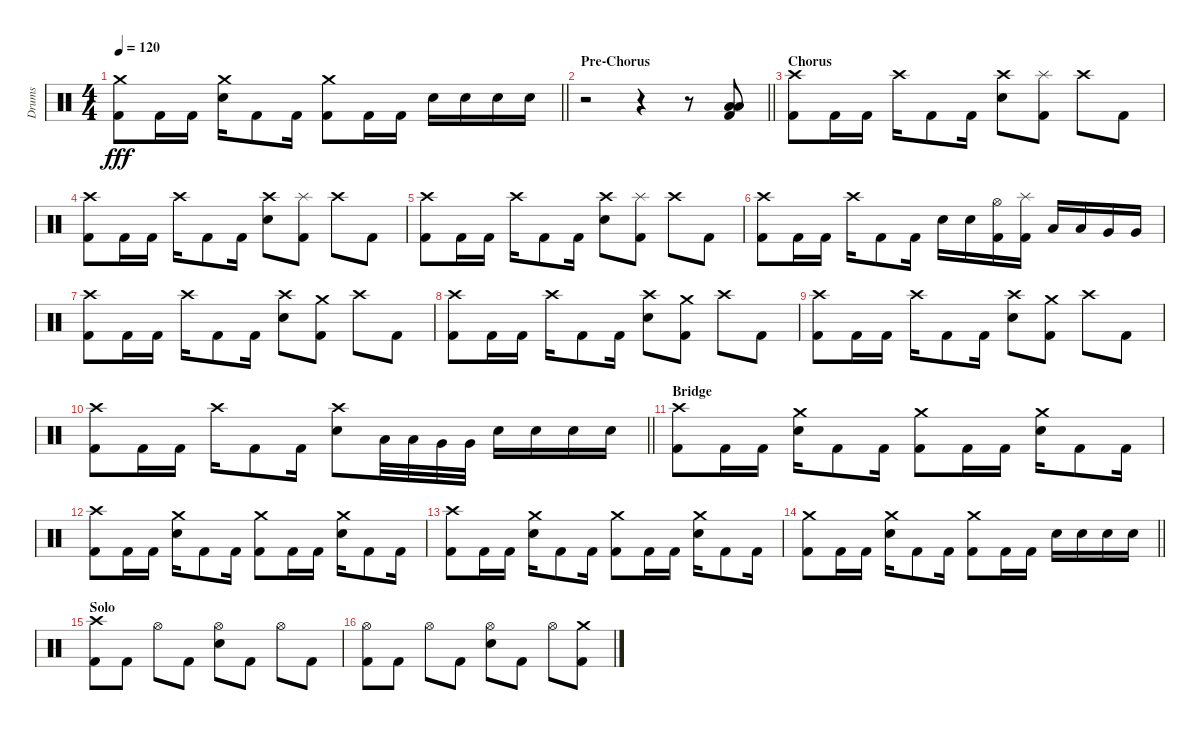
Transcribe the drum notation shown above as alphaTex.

\track ("Drums" "Drums") {instrument percussion}
\staff {score}
\articulation defaults
\ts (4 4)
\tempo 120
\clef neutral
\barLineRight lightlight
\ks c
("Crash medium (hit)" "Kick (hit) 2").8{dy fff} "Kick (hit) 2".16 "Kick (hit) 2".16 ("Crash medium (hit)" "Electric Snare (hit)").16 "Kick (hit) 2".8 "Kick (hit) 2".16 ("Crash medium (hit)" "Kick (hit) 2").8 "Kick (hit) 2".16 "Kick (hit) 2".16 "Electric Snare (hit)".16 "Electric Snare (hit)".16 "Electric Snare (hit)".16 "Electric Snare (hit)".16 |
\section ("" "Pre-Chorus")
\barLineRight lightlight
r.2 r.4 r.8 ("Low Floor Tom (hit)" "Low Tom (hit)" "Kick (hit) 2").8 |
\section ("" "Chorus")
("Crash high (hit)" "Kick (hit) 2").8 "Kick (hit) 2".16 "Kick (hit) 2".16 "Crash high (hit)".16 "Kick (hit) 2".8 "Kick (hit) 2".16 ("Crash high (hit)" "Electric Snare (hit)").8 ("Splash (hit)" "Kick (hit) 2").8 "Crash high (hit)".8 "Kick (hit) 2".8 |
("Crash high (hit)" "Kick (hit) 2").8 "Kick (hit) 2".16 "Kick (hit) 2".16 "Crash high (hit)".16 "Kick (hit) 2".8 "Kick (hit) 2".16 ("Crash high (hit)" "Electric Snare (hit)").8 ("Splash (hit)" "Kick (hit) 2").8 "Crash high (hit)".8 "Kick (hit) 2".8 |
("Crash high (hit)" "Kick (hit) 2").8 "Kick (hit) 2".16 "Kick (hit) 2".16 "Crash high (hit)".16 "Kick (hit) 2".8 "Kick (hit) 2".16 ("Crash high (hit)" "Electric Snare (hit)").8 ("Splash (hit)" "Kick (hit) 2").8 "Crash high (hit)".8 "Kick (hit) 2".8 |
("Crash high (hit)" "Kick (hit) 2").8 "Kick (hit) 2".16 "Kick (hit) 2".16 "Crash high (hit)".16 "Kick (hit) 2".8 "Kick (hit) 2".16 "Electric Snare (hit)".16 "Electric Snare (hit)".16 ("Hi-Hat (open)" "Kick (hit) 2").16 ("Splash (hit)" "Kick (hit) 2").16 "Low Tom (hit)".16 "Low Tom (hit)".16 "Very Low Tom (hit)".16 "Very Low Tom (hit)".16 |
("Crash high (hit)" "Kick (hit) 2").8 "Kick (hit) 2".16 "Kick (hit) 2".16 "Crash high (hit)".16 "Kick (hit) 2".8 "Kick (hit) 2".16 ("Crash high (hit)" "Electric Snare (hit)").8 ("Crash medium (hit)" "Kick (hit) 2").8 "Crash high (hit)".8 "Kick (hit) 2".8 |
("Crash high (hit)" "Kick (hit) 2").8 "Kick (hit) 2".16 "Kick (hit) 2".16 "Crash high (hit)".16 "Kick (hit) 2".8 "Kick (hit) 2".16 ("Crash high (hit)" "Electric Snare (hit)").8 ("Crash medium (hit)" "Kick (hit) 2").8 "Crash high (hit)".8 "Kick (hit) 2".8 |
("Crash high (hit)" "Kick (hit) 2").8 "Kick (hit) 2".16 "Kick (hit) 2".16 "Crash high (hit)".16 "Kick (hit) 2".8 "Kick (hit) 2".16 ("Crash high (hit)" "Electric Snare (hit)").8 ("Crash medium (hit)" "Kick (hit) 2").8 "Crash high (hit)".8 "Kick (hit) 2".8 |
\barLineRight lightlight
("Crash high (hit)" "Kick (hit) 2").8 "Kick (hit) 2".16 "Kick (hit) 2".16 "Crash high (hit)".16 "Kick (hit) 2".8 "Kick (hit) 2".16 ("Crash high (hit)" "Electric Snare (hit)").8 "Low Tom (hit)".32 "Low Tom (hit)".32 "Very Low Tom (hit)".32 "Very Low Tom (hit)".32 "Electric Snare (hit)".16 "Electric Snare (hit)".16 "Electric Snare (hit)".16 "Electric Snare (hit)".16 |
\section ("" "Bridge")
("Crash high (hit)" "Kick (hit) 2").8 "Kick (hit) 2".16 "Kick (hit) 2".16 ("Crash medium (hit)" "Electric Snare (hit)").16 "Kick (hit) 2".8 "Kick (hit) 2".16 ("Crash medium (hit)" "Kick (hit) 2").8 "Kick (hit) 2".16 "Kick (hit) 2".16 ("Crash medium (hit)" "Electric Snare (hit)").16 "Kick (hit) 2".8 "Kick (hit) 2".16 |
("Crash high (hit)" "Kick (hit) 2").8 "Kick (hit) 2".16 "Kick (hit) 2".16 ("Crash medium (hit)" "Electric Snare (hit)").16 "Kick (hit) 2".8 "Kick (hit) 2".16 ("Crash medium (hit)" "Kick (hit) 2").8 "Kick (hit) 2".16 "Kick (hit) 2".16 ("Crash medium (hit)" "Electric Snare (hit)").16 "Kick (hit) 2".8 "Kick (hit) 2".16 |
("Crash high (hit)" "Kick (hit) 2").8 "Kick (hit) 2".16 "Kick (hit) 2".16 ("Crash medium (hit)" "Electric Snare (hit)").16 "Kick (hit) 2".8 "Kick (hit) 2".16 ("Crash medium (hit)" "Kick (hit) 2").8 "Kick (hit) 2".16 "Kick (hit) 2".16 ("Crash medium (hit)" "Electric Snare (hit)").16 "Kick (hit) 2".8 "Kick (hit) 2".16 |
\barLineRight lightlight
("Crash medium (hit)" "Kick (hit) 2").8 "Kick (hit) 2".16 "Kick (hit) 2".16 ("Crash medium (hit)" "Electric Snare (hit)").16 "Kick (hit) 2".8 "Kick (hit) 2".16 ("Crash medium (hit)" "Kick (hit) 2").8 "Kick (hit) 2".16 "Kick (hit) 2".16 "Electric Snare (hit)".16 "Electric Snare (hit)".16 "Electric Snare (hit)".16 "Electric Snare (hit)".16 |
\section ("" "Solo")
("Crash high (hit)" "Kick (hit) 2").8 "Kick (hit) 2".8 "Hi-Hat (open)".8 "Kick (hit) 2".8 ("Hi-Hat (open)" "Electric Snare (hit)").8 "Kick (hit) 2".8 "Hi-Hat (open)".8 "Kick (hit) 2".8 |
("Hi-Hat (open)" "Kick (hit) 2").8 "Kick (hit) 2".8 "Hi-Hat (open)".8 "Kick (hit) 2".8 ("Hi-Hat (open)" "Electric Snare (hit)").8 "Kick (hit) 2".8 "Hi-Hat (open)".8 ("Crash medium (hit)" "Kick (hit) 2").8
